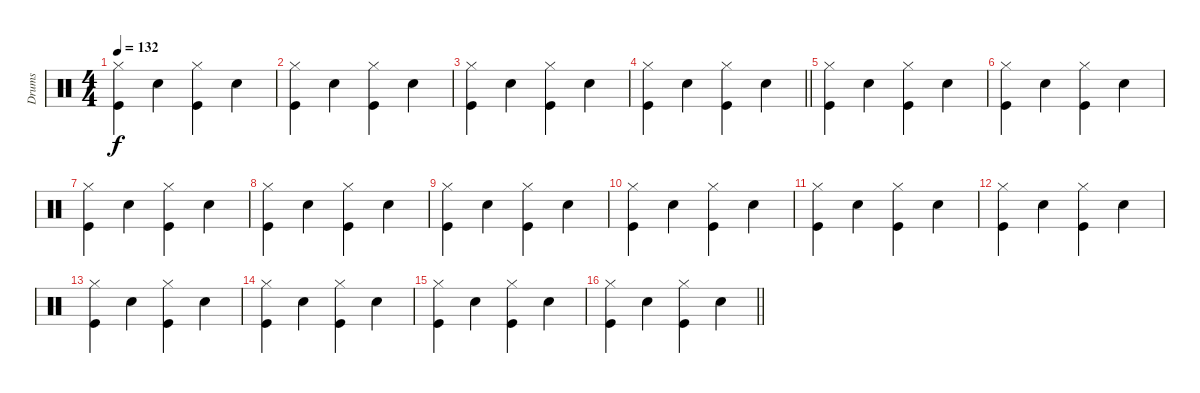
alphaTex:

\track ("Drums" "Drums") {instrument percussion}
\staff {score}
\articulation defaults
\ts (4 4)
\tempo 132
\clef neutral
\ks c
("Kick (hit)" "Hi-Hat (closed)").4{dy f} "Snare (hit) 2".4 ("Kick (hit)" "Hi-Hat (closed)").4 "Snare (hit) 2".4 |
("Kick (hit)" "Hi-Hat (closed)").4 "Snare (hit) 2".4 ("Kick (hit)" "Hi-Hat (closed)").4 "Snare (hit) 2".4 |
("Kick (hit)" "Hi-Hat (closed)").4 "Snare (hit) 2".4 ("Kick (hit)" "Hi-Hat (closed)").4 "Snare (hit) 2".4 |
\barLineRight lightlight
("Kick (hit)" "Hi-Hat (closed)").4 "Snare (hit) 2".4 ("Kick (hit)" "Hi-Hat (closed)").4 "Snare (hit) 2".4 |
("Kick (hit)" "Hi-Hat (closed)").4 "Snare (hit) 2".4 ("Kick (hit)" "Hi-Hat (closed)").4 "Snare (hit) 2".4 |
("Kick (hit)" "Hi-Hat (closed)").4 "Snare (hit) 2".4 ("Kick (hit)" "Hi-Hat (closed)").4 "Snare (hit) 2".4 |
("Kick (hit)" "Hi-Hat (closed)").4 "Snare (hit) 2".4 ("Kick (hit)" "Hi-Hat (closed)").4 "Snare (hit) 2".4 |
("Kick (hit)" "Hi-Hat (closed)").4 "Snare (hit) 2".4 ("Kick (hit)" "Hi-Hat (closed)").4 "Snare (hit) 2".4 |
("Kick (hit)" "Hi-Hat (closed)").4 "Snare (hit) 2".4 ("Kick (hit)" "Hi-Hat (closed)").4 "Snare (hit) 2".4 |
("Kick (hit)" "Hi-Hat (closed)").4 "Snare (hit) 2".4 ("Kick (hit)" "Hi-Hat (closed)").4 "Snare (hit) 2".4 |
("Kick (hit)" "Hi-Hat (closed)").4 "Snare (hit) 2".4 ("Kick (hit)" "Hi-Hat (closed)").4 "Snare (hit) 2".4 |
("Kick (hit)" "Hi-Hat (closed)").4 "Snare (hit) 2".4 ("Kick (hit)" "Hi-Hat (closed)").4 "Snare (hit) 2".4 |
("Kick (hit)" "Hi-Hat (closed)").4 "Snare (hit) 2".4 ("Kick (hit)" "Hi-Hat (closed)").4 "Snare (hit) 2".4 |
("Kick (hit)" "Hi-Hat (closed)").4 "Snare (hit) 2".4 ("Kick (hit)" "Hi-Hat (closed)").4 "Snare (hit) 2".4 |
("Kick (hit)" "Hi-Hat (closed)").4 "Snare (hit) 2".4 ("Kick (hit)" "Hi-Hat (closed)").4 "Snare (hit) 2".4 |
\barLineRight lightlight
("Kick (hit)" "Hi-Hat (closed)").4 "Snare (hit) 2".4 ("Kick (hit)" "Hi-Hat (closed)").4 "Snare (hit) 2".4
